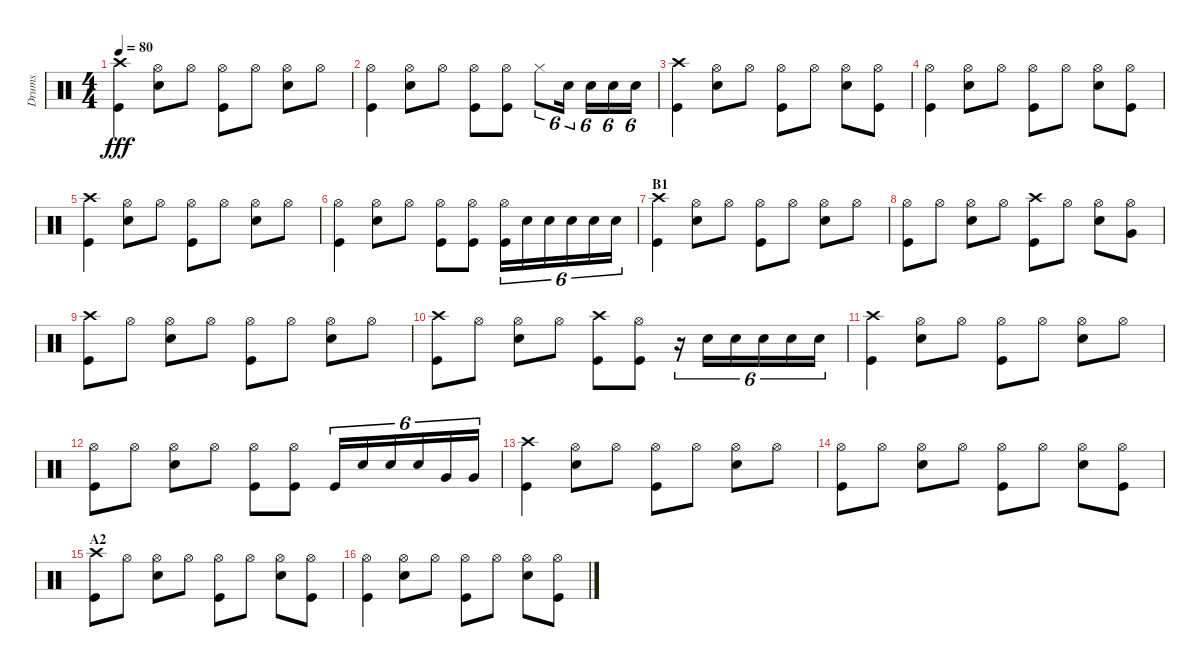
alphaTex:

\track ("Drums" "Drums") {instrument percussion}
\staff {score}
\articulation defaults
\ts (4 4)
\tempo 80
\clef neutral
\ks c
("Crash high (hit)" "Kick (hit)").4{dy fff} ("Hi-Hat (open)" "Snare (hit) 2").8 "Hi-Hat (open)".8 ("Hi-Hat (open)" "Kick (hit)").8 "Hi-Hat (open)".8 ("Hi-Hat (open)" "Snare (hit) 2").8 "Hi-Hat (open)".8 |
("Hi-Hat (open)" "Kick (hit)").4 ("Hi-Hat (open)" "Snare (hit) 2").8 "Hi-Hat (open)".8 ("Hi-Hat (open)" "Kick (hit)").8 ("Hi-Hat (open)" "Kick (hit)").8 "Hi-Hat (closed)".8{tu (6 4)} "Snare (hit) 2".16{tu (6 4)} "Snare (hit) 2".16{tu (6 4)} "Snare (hit) 2".16{tu (6 4)} "Snare (hit) 2".16{tu (6 4)} |
("Crash high (hit)" "Kick (hit)").4 ("Hi-Hat (open)" "Snare (hit) 2").8 "Hi-Hat (open)".8 ("Hi-Hat (open)" "Kick (hit)").8 "Hi-Hat (open)".8 ("Hi-Hat (open)" "Snare (hit) 2").8 ("Hi-Hat (open)" "Kick (hit)").8 |
("Hi-Hat (open)" "Kick (hit)").4 ("Hi-Hat (open)" "Snare (hit) 2").8 "Hi-Hat (open)".8 ("Hi-Hat (open)" "Kick (hit)").8 "Hi-Hat (open)".8 ("Hi-Hat (open)" "Snare (hit) 2").8 ("Hi-Hat (open)" "Kick (hit)").8 |
("Crash high (hit)" "Kick (hit)").4 ("Hi-Hat (open)" "Snare (hit) 2").8 "Hi-Hat (open)".8 ("Hi-Hat (open)" "Kick (hit)").8 "Hi-Hat (open)".8 ("Hi-Hat (open)" "Snare (hit) 2").8 "Hi-Hat (open)".8 |
("Hi-Hat (open)" "Kick (hit)").4 ("Hi-Hat (open)" "Snare (hit) 2").8 "Hi-Hat (open)".8 ("Hi-Hat (open)" "Kick (hit)").8 ("Hi-Hat (open)" "Kick (hit)").8 ("Hi-Hat (open)" "Kick (hit)").16{tu (6 4)} "Snare (hit) 2".16{tu (6 4)} "Snare (hit) 2".16{tu (6 4)} "Snare (hit) 2".16{tu (6 4)} "Snare (hit) 2".16{tu (6 4)} "Snare (hit) 2".16{tu (6 4)} |
\section ("" "B1")
("Crash high (hit)" "Kick (hit)").4 ("Hi-Hat (open)" "Snare (hit) 2").8 "Hi-Hat (open)".8 ("Hi-Hat (open)" "Kick (hit)").8 "Hi-Hat (open)".8 ("Hi-Hat (open)" "Snare (hit) 2").8 "Hi-Hat (open)".8 |
("Hi-Hat (open)" "Kick (hit)").8 "Hi-Hat (open)".8 ("Hi-Hat (open)" "Snare (hit) 2").8 "Hi-Hat (open)".8 ("Crash high (hit)" "Kick (hit)").8 "Hi-Hat (open)".8 ("Hi-Hat (open)" "Snare (hit) 2").8 ("Hi-Hat (open)" "Very Low Tom (hit)").8 |
("Crash high (hit)" "Kick (hit)").8 "Hi-Hat (open)".8 ("Hi-Hat (open)" "Snare (hit) 2").8 "Hi-Hat (open)".8 ("Hi-Hat (open)" "Kick (hit)").8 "Hi-Hat (open)".8 ("Hi-Hat (open)" "Snare (hit) 2").8 "Hi-Hat (open)".8 |
("Crash high (hit)" "Kick (hit)").8 "Hi-Hat (open)".8 ("Hi-Hat (open)" "Snare (hit) 2").8 "Hi-Hat (open)".8 ("Crash high (hit)" "Kick (hit)").8 ("Hi-Hat (open)" "Kick (hit)").8 r.16{tu (6 4)} "Snare (hit) 2".16{tu (6 4)} "Snare (hit) 2".16{tu (6 4)} "Snare (hit) 2".16{tu (6 4)} "Snare (hit) 2".16{tu (6 4)} "Snare (hit) 2".16{tu (6 4)} |
("Crash high (hit)" "Kick (hit)").4 ("Hi-Hat (open)" "Snare (hit) 2").8 "Hi-Hat (open)".8 ("Hi-Hat (open)" "Kick (hit)").8 "Hi-Hat (open)".8 ("Hi-Hat (open)" "Snare (hit) 2").8 "Hi-Hat (open)".8 |
("Hi-Hat (open)" "Kick (hit)").8 "Hi-Hat (open)".8 ("Hi-Hat (open)" "Snare (hit) 2").8 "Hi-Hat (open)".8 ("Hi-Hat (open)" "Kick (hit)").8 ("Hi-Hat (open)" "Kick (hit)").8 "Kick (hit)".16{tu (6 4)} "Snare (hit) 2".16{tu (6 4)} "Snare (hit) 2".16{tu (6 4)} "Snare (hit) 2".16{tu (6 4)} "Very Low Tom (hit)".16{tu (6 4)} "Very Low Tom (hit)".16{tu (6 4)} |
("Crash high (hit)" "Kick (hit)").4 ("Hi-Hat (open)" "Snare (hit) 2").8 "Hi-Hat (open)".8 ("Hi-Hat (open)" "Kick (hit)").8 "Hi-Hat (open)".8 ("Hi-Hat (open)" "Snare (hit) 2").8 "Hi-Hat (open)".8 |
("Hi-Hat (open)" "Kick (hit)").8 "Hi-Hat (open)".8 ("Hi-Hat (open)" "Snare (hit) 2").8 "Hi-Hat (open)".8 ("Hi-Hat (open)" "Kick (hit)").8 "Hi-Hat (open)".8 ("Hi-Hat (open)" "Snare (hit) 2").8 ("Hi-Hat (open)" "Kick (hit)").8 |
\section ("" "A2")
("Crash high (hit)" "Kick (hit)").8 "Hi-Hat (open)".8 ("Hi-Hat (open)" "Snare (hit) 2").8 "Hi-Hat (open)".8 ("Hi-Hat (open)" "Kick (hit)").8 "Hi-Hat (open)".8 ("Hi-Hat (open)" "Snare (hit) 2").8 ("Hi-Hat (open)" "Kick (hit)").8 |
("Hi-Hat (open)" "Kick (hit)").4 ("Hi-Hat (open)" "Snare (hit) 2").8 "Hi-Hat (open)".8 ("Hi-Hat (open)" "Kick (hit)").8 "Hi-Hat (open)".8 ("Hi-Hat (open)" "Snare (hit) 2").8 ("Hi-Hat (open)" "Kick (hit)").8
